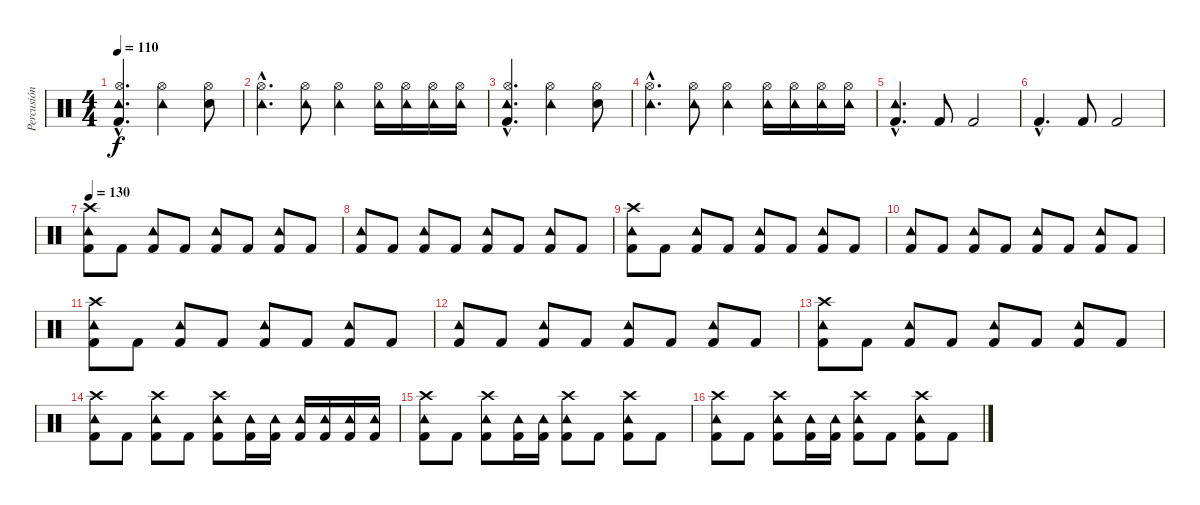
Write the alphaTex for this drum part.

\track ("Percusión" "Percusión") {instrument percussion}
\staff {score}
\articulation defaults
\ts (4 4)
\tempo 110
\clef neutral
\ks c
("Tambourine (hit)"{hac} "Hi-Hat (open)"{hac} "Kick (hit) 2"{hac}).4{d dy f} ("Tambourine (hit)" "Hi-Hat (open)").2 ("Electric Snare (hit)" "Hi-Hat (open)").8 |
("Hi-Hat (open)"{hac} "Tambourine (hit)"{hac}).4{d} ("Hi-Hat (open)" "Tambourine (hit)").8 ("Hi-Hat (open)" "Tambourine (hit)").4 ("Tambourine (hit)" "Hi-Hat (open)").16 ("Tambourine (hit)" "Hi-Hat (open)").16 ("Tambourine (hit)" "Hi-Hat (open)").16 ("Tambourine (hit)" "Hi-Hat (open)").16 |
("Tambourine (hit)"{hac} "Hi-Hat (open)"{hac} "Kick (hit) 2"{hac}).4{d} ("Tambourine (hit)" "Hi-Hat (open)").2 ("Electric Snare (hit)" "Hi-Hat (open)").8 |
("Hi-Hat (open)"{hac} "Tambourine (hit)"{hac}).4{d} ("Hi-Hat (open)" "Tambourine (hit)").8 ("Hi-Hat (open)" "Tambourine (hit)").4 ("Tambourine (hit)" "Hi-Hat (open)").16 ("Tambourine (hit)" "Hi-Hat (open)").16 ("Tambourine (hit)" "Hi-Hat (open)").16 ("Tambourine (hit)" "Hi-Hat (open)").16 |
("Tambourine (hit)"{hac} "Kick (hit) 2"{hac}).4{d} "Kick (hit) 2".8 "Kick (hit) 2".2 |
"Kick (hit) 2"{hac}.4{d} "Kick (hit) 2".8 "Kick (hit) 2".2 |
\tempo 130
("Tambourine (hit)" "Kick (hit) 2" "Crash high (hit)").8 "Kick (hit) 2".8 ("Tambourine (hit)" "Kick (hit) 2").8 "Kick (hit) 2".8 ("Tambourine (hit)" "Kick (hit) 2").8 "Kick (hit) 2".8 ("Tambourine (hit)" "Kick (hit) 2").8 "Kick (hit) 2".8 |
("Tambourine (hit)" "Kick (hit) 2").8 "Kick (hit) 2".8 ("Tambourine (hit)" "Kick (hit) 2").8 "Kick (hit) 2".8 ("Tambourine (hit)" "Kick (hit) 2").8 "Kick (hit) 2".8 ("Tambourine (hit)" "Kick (hit) 2").8 "Kick (hit) 2".8 |
("Tambourine (hit)" "Kick (hit) 2" "Crash high (hit)").8 "Kick (hit) 2".8 ("Tambourine (hit)" "Kick (hit) 2").8 "Kick (hit) 2".8 ("Tambourine (hit)" "Kick (hit) 2").8 "Kick (hit) 2".8 ("Tambourine (hit)" "Kick (hit) 2").8 "Kick (hit) 2".8 |
("Tambourine (hit)" "Kick (hit) 2").8 "Kick (hit) 2".8 ("Tambourine (hit)" "Kick (hit) 2").8 "Kick (hit) 2".8 ("Tambourine (hit)" "Kick (hit) 2").8 "Kick (hit) 2".8 ("Tambourine (hit)" "Kick (hit) 2").8 "Kick (hit) 2".8 |
("Tambourine (hit)" "Kick (hit) 2" "Crash high (hit)").8 "Kick (hit) 2".8 ("Tambourine (hit)" "Kick (hit) 2").8 "Kick (hit) 2".8 ("Tambourine (hit)" "Kick (hit) 2").8 "Kick (hit) 2".8 ("Tambourine (hit)" "Kick (hit) 2").8 "Kick (hit) 2".8 |
("Tambourine (hit)" "Kick (hit) 2").8 "Kick (hit) 2".8 ("Tambourine (hit)" "Kick (hit) 2").8 "Kick (hit) 2".8 ("Tambourine (hit)" "Kick (hit) 2").8 "Kick (hit) 2".8 ("Tambourine (hit)" "Kick (hit) 2").8 "Kick (hit) 2".8 |
("Tambourine (hit)" "Kick (hit) 2" "Crash high (hit)").8 "Kick (hit) 2".8 ("Tambourine (hit)" "Kick (hit) 2").8 "Kick (hit) 2".8 ("Tambourine (hit)" "Kick (hit) 2").8 "Kick (hit) 2".8 ("Tambourine (hit)" "Kick (hit) 2").8 "Kick (hit) 2".8 |
("Tambourine (hit)" "Kick (hit) 2" "Crash high (hit)").8 "Kick (hit) 2".8 ("Tambourine (hit)" "Kick (hit) 2" "Crash high (hit)").8 "Kick (hit) 2".8 ("Tambourine (hit)" "Kick (hit) 2" "Crash high (hit)").8 ("Tambourine (hit)" "Kick (hit) 2").16 ("Tambourine (hit)" "Kick (hit) 2").16 ("Tambourine (hit)" "Kick (hit) 2").16 ("Tambourine (hit)" "Kick (hit) 2").16 ("Tambourine (hit)" "Kick (hit) 2").16 ("Tambourine (hit)" "Kick (hit) 2").16 |
("Tambourine (hit)" "Kick (hit) 2" "Crash high (hit)").8 "Kick (hit) 2".8 ("Tambourine (hit)" "Kick (hit) 2" "Crash high (hit)").8 ("Tambourine (hit)" "Kick (hit) 2").16 ("Tambourine (hit)" "Kick (hit) 2").16 ("Tambourine (hit)" "Kick (hit) 2" "Crash high (hit)").8 "Kick (hit) 2".8 ("Tambourine (hit)" "Kick (hit) 2" "Crash high (hit)").8 "Kick (hit) 2".8 |
("Tambourine (hit)" "Kick (hit) 2" "Crash high (hit)").8 "Kick (hit) 2".8 ("Tambourine (hit)" "Kick (hit) 2" "Crash high (hit)").8 ("Tambourine (hit)" "Kick (hit) 2").16 ("Tambourine (hit)" "Kick (hit) 2").16 ("Tambourine (hit)" "Kick (hit) 2" "Crash high (hit)").8 "Kick (hit) 2".8 ("Tambourine (hit)" "Kick (hit) 2" "Crash high (hit)").8 "Kick (hit) 2".8
